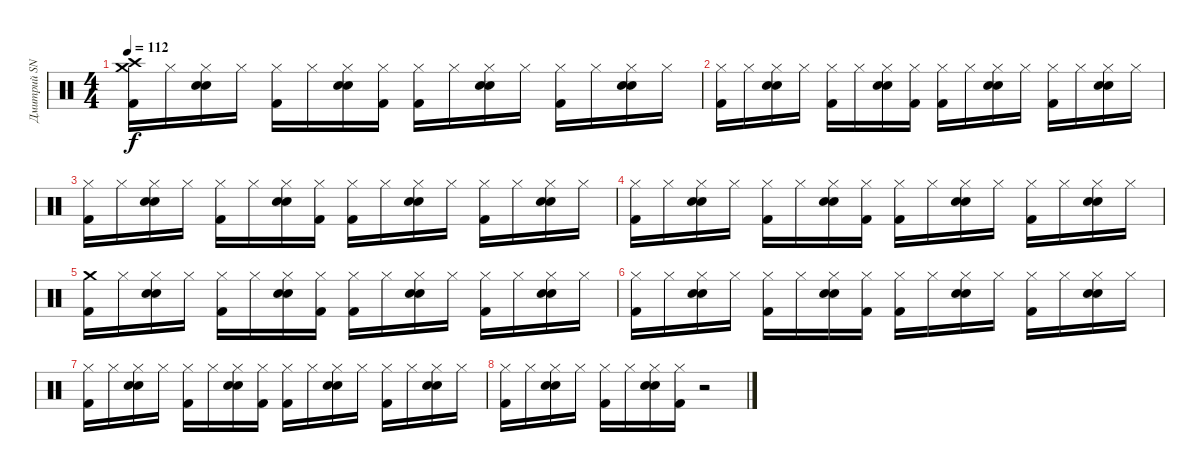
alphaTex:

\track ("Дмитрий SNAKE Хакимов" "Дмитрий SN") {instrument percussion}
\staff {score}
\articulation defaults
\ts (4 4)
\tempo 112
\clef neutral
\ks c
("Crash high (hit)" "Crash medium (hit)" "Kick (hit) 2").16{dy f} "Hi-Hat (closed)".16 ("Hi-Hat (closed)" "Hand Clap (hit)" "Snare (hit) 2").16 "Hi-Hat (closed)".16 ("Hi-Hat (closed)" "Kick (hit) 2").16 "Hi-Hat (closed)".16 ("Hi-Hat (closed)" "Hand Clap (hit)" "Snare (hit) 2").16 ("Hi-Hat (closed)" "Kick (hit) 2").16 ("Hi-Hat (closed)" "Kick (hit) 2").16 "Hi-Hat (closed)".16 ("Hi-Hat (closed)" "Hand Clap (hit)" "Snare (hit) 2").16 "Hi-Hat (closed)".16 ("Hi-Hat (closed)" "Kick (hit) 2").16 "Hi-Hat (closed)".16 ("Hi-Hat (closed)" "Hand Clap (hit)" "Snare (hit) 2").16 "Hi-Hat (closed)".16 |
("Hi-Hat (closed)" "Kick (hit) 2").16 "Hi-Hat (closed)".16 ("Hi-Hat (closed)" "Hand Clap (hit)" "Snare (hit) 2").16 "Hi-Hat (closed)".16 ("Hi-Hat (closed)" "Kick (hit) 2").16 "Hi-Hat (closed)".16 ("Hi-Hat (closed)" "Hand Clap (hit)" "Snare (hit) 2").16 ("Hi-Hat (closed)" "Kick (hit) 2").16 ("Hi-Hat (closed)" "Kick (hit) 2").16 "Hi-Hat (closed)".16 ("Hi-Hat (closed)" "Hand Clap (hit)" "Snare (hit) 2").16 "Hi-Hat (closed)".16 ("Hi-Hat (closed)" "Kick (hit) 2").16 "Hi-Hat (closed)".16 ("Hi-Hat (closed)" "Hand Clap (hit)" "Snare (hit) 2").16 "Hi-Hat (closed)".16 |
("Hi-Hat (closed)" "Kick (hit) 2").16 "Hi-Hat (closed)".16 ("Hi-Hat (closed)" "Hand Clap (hit)" "Snare (hit) 2").16 "Hi-Hat (closed)".16 ("Hi-Hat (closed)" "Kick (hit) 2").16 "Hi-Hat (closed)".16 ("Hi-Hat (closed)" "Hand Clap (hit)" "Snare (hit) 2").16 ("Hi-Hat (closed)" "Kick (hit) 2").16 ("Hi-Hat (closed)" "Kick (hit) 2").16 "Hi-Hat (closed)".16 ("Hi-Hat (closed)" "Hand Clap (hit)" "Snare (hit) 2").16 "Hi-Hat (closed)".16 ("Hi-Hat (closed)" "Kick (hit) 2").16 "Hi-Hat (closed)".16 ("Hi-Hat (closed)" "Hand Clap (hit)" "Snare (hit) 2").16 "Hi-Hat (closed)".16 |
("Hi-Hat (closed)" "Kick (hit) 2").16 "Hi-Hat (closed)".16 ("Hi-Hat (closed)" "Hand Clap (hit)" "Snare (hit) 2").16 "Hi-Hat (closed)".16 ("Hi-Hat (closed)" "Kick (hit) 2").16 "Hi-Hat (closed)".16 ("Hi-Hat (closed)" "Hand Clap (hit)" "Snare (hit) 2").16 ("Hi-Hat (closed)" "Kick (hit) 2").16 ("Hi-Hat (closed)" "Kick (hit) 2").16 "Hi-Hat (closed)".16 ("Hi-Hat (closed)" "Hand Clap (hit)" "Snare (hit) 2").16 "Hi-Hat (closed)".16 ("Hi-Hat (closed)" "Kick (hit) 2").16 "Hi-Hat (closed)".16 ("Hi-Hat (closed)" "Hand Clap (hit)" "Snare (hit) 2").16 "Hi-Hat (closed)".16 |
("Crash medium (hit)" "Kick (hit) 2").16 "Hi-Hat (closed)".16 ("Hi-Hat (closed)" "Hand Clap (hit)" "Snare (hit) 2").16 "Hi-Hat (closed)".16 ("Hi-Hat (closed)" "Kick (hit) 2").16 "Hi-Hat (closed)".16 ("Hi-Hat (closed)" "Hand Clap (hit)" "Snare (hit) 2").16 ("Hi-Hat (closed)" "Kick (hit) 2").16 ("Hi-Hat (closed)" "Kick (hit) 2").16 "Hi-Hat (closed)".16 ("Hi-Hat (closed)" "Hand Clap (hit)" "Snare (hit) 2").16 "Hi-Hat (closed)".16 ("Hi-Hat (closed)" "Kick (hit) 2").16 "Hi-Hat (closed)".16 ("Hi-Hat (closed)" "Hand Clap (hit)" "Snare (hit) 2").16 "Hi-Hat (closed)".16 |
("Hi-Hat (closed)" "Kick (hit) 2").16 "Hi-Hat (closed)".16 ("Hi-Hat (closed)" "Hand Clap (hit)" "Snare (hit) 2").16 "Hi-Hat (closed)".16 ("Hi-Hat (closed)" "Kick (hit) 2").16 "Hi-Hat (closed)".16 ("Hi-Hat (closed)" "Hand Clap (hit)" "Snare (hit) 2").16 ("Hi-Hat (closed)" "Kick (hit) 2").16 ("Hi-Hat (closed)" "Kick (hit) 2").16 "Hi-Hat (closed)".16 ("Hi-Hat (closed)" "Hand Clap (hit)" "Snare (hit) 2").16 "Hi-Hat (closed)".16 ("Hi-Hat (closed)" "Kick (hit) 2").16 "Hi-Hat (closed)".16 ("Hi-Hat (closed)" "Hand Clap (hit)" "Snare (hit) 2").16 "Hi-Hat (closed)".16 |
("Hi-Hat (closed)" "Kick (hit) 2").16 "Hi-Hat (closed)".16 ("Hi-Hat (closed)" "Hand Clap (hit)" "Snare (hit) 2").16 "Hi-Hat (closed)".16 ("Hi-Hat (closed)" "Kick (hit) 2").16 "Hi-Hat (closed)".16 ("Hi-Hat (closed)" "Hand Clap (hit)" "Snare (hit) 2").16 ("Hi-Hat (closed)" "Kick (hit) 2").16 ("Hi-Hat (closed)" "Kick (hit) 2").16 "Hi-Hat (closed)".16 ("Hi-Hat (closed)" "Hand Clap (hit)" "Snare (hit) 2").16 "Hi-Hat (closed)".16 ("Hi-Hat (closed)" "Kick (hit) 2").16 "Hi-Hat (closed)".16 ("Hi-Hat (closed)" "Hand Clap (hit)" "Snare (hit) 2").16 "Hi-Hat (closed)".16 |
("Hi-Hat (closed)" "Kick (hit) 2").16 "Hi-Hat (closed)".16 ("Hi-Hat (closed)" "Hand Clap (hit)" "Snare (hit) 2").16 "Hi-Hat (closed)".16 ("Hi-Hat (closed)" "Kick (hit) 2").16 "Hi-Hat (closed)".16 ("Hi-Hat (closed)" "Hand Clap (hit)" "Snare (hit) 2").16 ("Hi-Hat (closed)" "Kick (hit) 2").16 r.2
